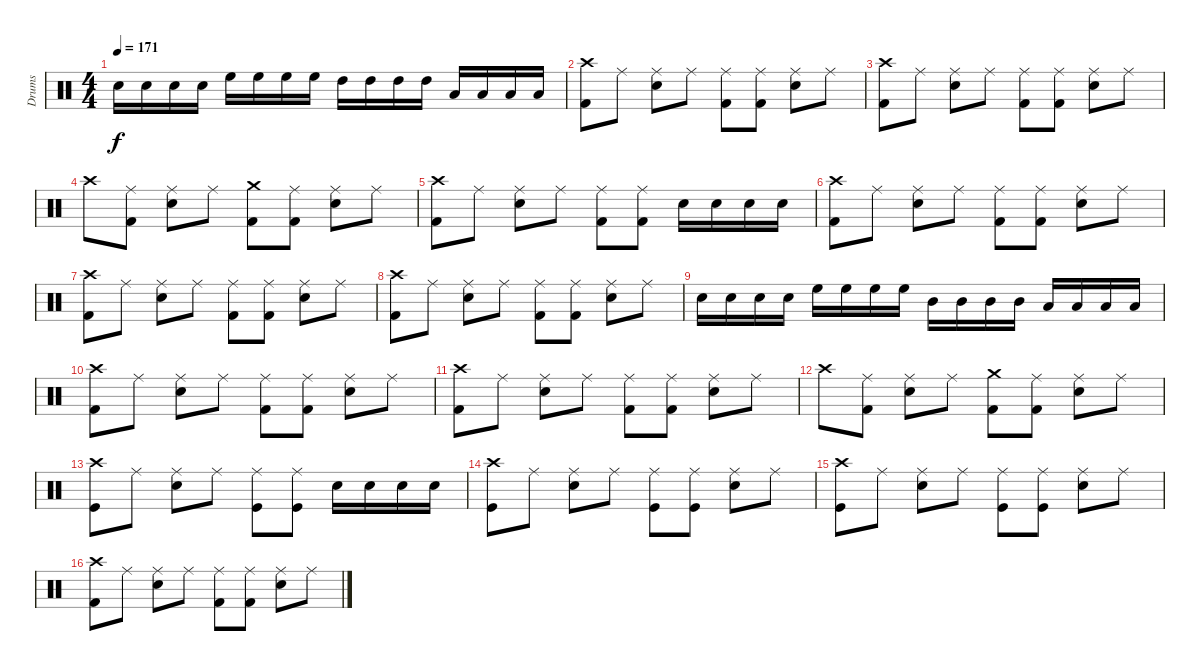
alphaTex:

\track ("Drums" "Drums") {instrument percussion}
\staff {score}
\articulation defaults
\ts (4 4)
\tempo 171
\clef neutral
\ks c "Electric Snare (hit)".16{dy f} "Electric Snare (hit)".16 "Electric Snare (hit)".16 "Electric Snare (hit)".16 "High Floor Tom (hit)".16 "High Floor Tom (hit)".16 "High Floor Tom (hit)".16 "High Floor Tom (hit)".16 "High Tom (hit)".16 "High Tom (hit)".16 "High Tom (hit)".16 "High Tom (hit)".16 "Low Tom (hit)".16 "Low Tom (hit)".16 "Low Tom (hit)".16 "Low Tom (hit)".16
|
("Crash high (hit)" "Kick (hit) 2").8 "Ride (middle)".8 ("Ride (middle)" "Electric Snare (hit)").8 "Ride (middle)".8 ("Ride (middle)" "Kick (hit) 2").8 ("Ride (middle)" "Kick (hit) 2").8 ("Ride (middle)" "Electric Snare (hit)").8 "Ride (middle)".8 |
("Crash high (hit)" "Kick (hit) 2").8 "Ride (middle)".8 ("Ride (middle)" "Electric Snare (hit)").8 "Ride (middle)".8 ("Ride (middle)" "Kick (hit) 2").8 ("Ride (middle)" "Kick (hit) 2").8 ("Ride (middle)" "Electric Snare (hit)").8 "Ride (middle)".8 |
"Crash high (hit)".8 ("Ride (middle)" "Kick (hit) 2").8 ("Ride (middle)" "Electric Snare (hit)").8 "Ride (middle)".8 ("Crash medium (hit)" "Kick (hit) 2").8 ("Ride (middle)" "Kick (hit) 2").8 ("Ride (middle)" "Electric Snare (hit)").8 "Ride (middle)".8 |
("Crash high (hit)" "Kick (hit) 2").8 "Ride (middle)".8 ("Ride (middle)" "Electric Snare (hit)").8 "Ride (middle)".8 ("Ride (middle)" "Kick (hit) 2").8 ("Ride (middle)" "Kick (hit) 2").8 "Electric Snare (hit)".16 "Electric Snare (hit)".16 "Electric Snare (hit)".16 "Electric Snare (hit)".16 |
("Crash high (hit)" "Kick (hit) 2").8 "Ride (middle)".8 ("Ride (middle)" "Electric Snare (hit)").8 "Ride (middle)".8 ("Ride (middle)" "Kick (hit) 2").8 ("Ride (middle)" "Kick (hit) 2").8 ("Ride (middle)" "Electric Snare (hit)").8 "Ride (middle)".8 |
("Crash high (hit)" "Kick (hit) 2").8 "Ride (middle)".8 ("Ride (middle)" "Electric Snare (hit)").8 "Ride (middle)".8 ("Ride (middle)" "Kick (hit) 2").8 ("Ride (middle)" "Kick (hit) 2").8 ("Ride (middle)" "Electric Snare (hit)").8 "Ride (middle)".8 |
("Crash high (hit)" "Kick (hit) 2").8 "Ride (middle)".8 ("Ride (middle)" "Electric Snare (hit)").8 "Ride (middle)".8 ("Ride (middle)" "Kick (hit) 2").8 ("Ride (middle)" "Kick (hit) 2").8 ("Ride (middle)" "Electric Snare (hit)").8 "Ride (middle)".8 |
"Electric Snare (hit)".16 "Electric Snare (hit)".16 "Electric Snare (hit)".16 "Electric Snare (hit)".16 "High Floor Tom (hit)".16 "High Floor Tom (hit)".16 "High Floor Tom (hit)".16 "High Floor Tom (hit)".16 "Mid Tom (hit)".16 "Mid Tom (hit)".16 "Mid Tom (hit)".16 "Mid Tom (hit)".16 "Low Tom (hit)".16 "Low Tom (hit)".16 "Low Tom (hit)".16 "Low Tom (hit)".16 |
("Crash high (hit)" "Kick (hit) 2").8 "Ride (middle)".8 ("Ride (middle)" "Electric Snare (hit)").8 "Ride (middle)".8 ("Ride (middle)" "Kick (hit) 2").8 ("Ride (middle)" "Kick (hit) 2").8 ("Ride (middle)" "Electric Snare (hit)").8 "Ride (middle)".8 |
("Crash high (hit)" "Kick (hit) 2").8 "Ride (middle)".8 ("Ride (middle)" "Electric Snare (hit)").8 "Ride (middle)".8 ("Ride (middle)" "Kick (hit) 2").8 ("Ride (middle)" "Kick (hit) 2").8 ("Ride (middle)" "Electric Snare (hit)").8 "Ride (middle)".8 |
"Crash high (hit)".8 ("Ride (middle)" "Kick (hit) 2").8 ("Ride (middle)" "Electric Snare (hit)").8 "Ride (middle)".8 ("Crash medium (hit)" "Kick (hit) 2").8 ("Ride (middle)" "Kick (hit) 2").8 ("Ride (middle)" "Electric Snare (hit)").8 "Ride (middle)".8 |
("Crash high (hit)" "Kick (hit)").8 "Ride (middle)".8 ("Ride (middle)" "Electric Snare (hit)").8 "Ride (middle)".8 ("Ride (middle)" "Kick (hit)").8 ("Ride (middle)" "Kick (hit)").8 "Electric Snare (hit)".16 "Electric Snare (hit)".16 "Electric Snare (hit)".16 "Electric Snare (hit)".16 |
("Crash high (hit)" "Kick (hit)").8 "Ride (middle)".8 ("Ride (middle)" "Electric Snare (hit)").8 "Ride (middle)".8 ("Ride (middle)" "Kick (hit)").8 ("Ride (middle)" "Kick (hit)").8 ("Ride (middle)" "Electric Snare (hit)").8 "Ride (middle)".8 |
("Crash high (hit)" "Kick (hit)").8 "Ride (middle)".8 ("Ride (middle)" "Electric Snare (hit)").8 "Ride (middle)".8 ("Ride (middle)" "Kick (hit)").8 ("Ride (middle)" "Kick (hit)").8 ("Ride (middle)" "Electric Snare (hit)").8 "Ride (middle)".8 |
("Crash high (hit)" "Kick (hit) 2").8 "Ride (middle)".8 ("Ride (middle)" "Electric Snare (hit)").8 "Ride (middle)".8 ("Ride (middle)" "Kick (hit) 2").8 ("Ride (middle)" "Kick (hit) 2").8 ("Ride (middle)" "Electric Snare (hit)").8 "Ride (middle)".8
